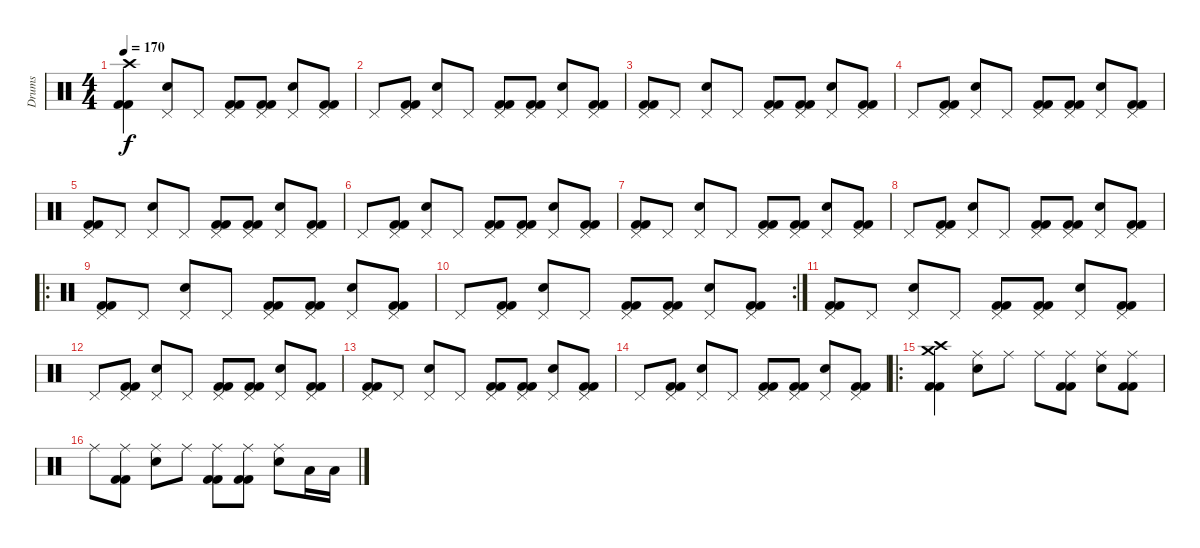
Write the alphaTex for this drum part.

\track ("Drums" "Drums") {instrument percussion}
\staff {score}
\articulation defaults
\ts (4 4)
\tempo 170
\clef neutral
\ks c
("Crash high (hit)" "Kick (hit) 2" "Kick (hit) 2").4{dy f} ("Pedal Hi-Hat (hit)" "Snare (hit) 2").8 "Pedal Hi-Hat (hit)".8 ("Pedal Hi-Hat (hit)" "Kick (hit) 2" "Kick (hit) 2").8 ("Pedal Hi-Hat (hit)" "Kick (hit) 2" "Kick (hit) 2").8 ("Pedal Hi-Hat (hit)" "Snare (hit) 2").8 ("Pedal Hi-Hat (hit)" "Kick (hit) 2" "Kick (hit) 2").8 |
"Pedal Hi-Hat (hit)".8 ("Pedal Hi-Hat (hit)" "Kick (hit) 2" "Kick (hit) 2").8 ("Pedal Hi-Hat (hit)" "Snare (hit) 2").8 "Pedal Hi-Hat (hit)".8 ("Pedal Hi-Hat (hit)" "Kick (hit) 2" "Kick (hit) 2").8 ("Pedal Hi-Hat (hit)" "Kick (hit) 2" "Kick (hit) 2").8 ("Pedal Hi-Hat (hit)" "Snare (hit) 2").8 ("Pedal Hi-Hat (hit)" "Kick (hit) 2" "Kick (hit) 2").8 |
("Pedal Hi-Hat (hit)" "Kick (hit) 2" "Kick (hit) 2").8 "Pedal Hi-Hat (hit)".8 ("Pedal Hi-Hat (hit)" "Snare (hit) 2").8 "Pedal Hi-Hat (hit)".8 ("Pedal Hi-Hat (hit)" "Kick (hit) 2" "Kick (hit) 2").8 ("Pedal Hi-Hat (hit)" "Kick (hit) 2" "Kick (hit) 2").8 ("Pedal Hi-Hat (hit)" "Snare (hit) 2").8 ("Pedal Hi-Hat (hit)" "Kick (hit) 2" "Kick (hit) 2").8 |
"Pedal Hi-Hat (hit)".8 ("Pedal Hi-Hat (hit)" "Kick (hit) 2" "Kick (hit) 2").8 ("Pedal Hi-Hat (hit)" "Snare (hit) 2").8 "Pedal Hi-Hat (hit)".8 ("Pedal Hi-Hat (hit)" "Kick (hit) 2" "Kick (hit) 2").8 ("Pedal Hi-Hat (hit)" "Kick (hit) 2" "Kick (hit) 2").8 ("Pedal Hi-Hat (hit)" "Snare (hit) 2").8 ("Pedal Hi-Hat (hit)" "Kick (hit) 2" "Kick (hit) 2").8 |
("Pedal Hi-Hat (hit)" "Kick (hit) 2" "Kick (hit) 2").8 "Pedal Hi-Hat (hit)".8 ("Pedal Hi-Hat (hit)" "Snare (hit) 2").8 "Pedal Hi-Hat (hit)".8 ("Pedal Hi-Hat (hit)" "Kick (hit) 2" "Kick (hit) 2").8 ("Pedal Hi-Hat (hit)" "Kick (hit) 2" "Kick (hit) 2").8 ("Pedal Hi-Hat (hit)" "Snare (hit) 2").8 ("Pedal Hi-Hat (hit)" "Kick (hit) 2" "Kick (hit) 2").8 |
"Pedal Hi-Hat (hit)".8 ("Pedal Hi-Hat (hit)" "Kick (hit) 2" "Kick (hit) 2").8 ("Pedal Hi-Hat (hit)" "Snare (hit) 2").8 "Pedal Hi-Hat (hit)".8 ("Pedal Hi-Hat (hit)" "Kick (hit) 2" "Kick (hit) 2").8 ("Pedal Hi-Hat (hit)" "Kick (hit) 2" "Kick (hit) 2").8 ("Pedal Hi-Hat (hit)" "Snare (hit) 2").8 ("Pedal Hi-Hat (hit)" "Kick (hit) 2" "Kick (hit) 2").8 |
("Pedal Hi-Hat (hit)" "Kick (hit) 2" "Kick (hit) 2").8 "Pedal Hi-Hat (hit)".8 ("Pedal Hi-Hat (hit)" "Snare (hit) 2").8 "Pedal Hi-Hat (hit)".8 ("Pedal Hi-Hat (hit)" "Kick (hit) 2" "Kick (hit) 2").8 ("Pedal Hi-Hat (hit)" "Kick (hit) 2" "Kick (hit) 2").8 ("Pedal Hi-Hat (hit)" "Snare (hit) 2").8 ("Pedal Hi-Hat (hit)" "Kick (hit) 2" "Kick (hit) 2").8 |
"Pedal Hi-Hat (hit)".8 ("Pedal Hi-Hat (hit)" "Kick (hit) 2" "Kick (hit) 2").8 ("Pedal Hi-Hat (hit)" "Snare (hit) 2").8 "Pedal Hi-Hat (hit)".8 ("Pedal Hi-Hat (hit)" "Kick (hit) 2" "Kick (hit) 2").8 ("Pedal Hi-Hat (hit)" "Kick (hit) 2" "Kick (hit) 2").8 ("Pedal Hi-Hat (hit)" "Snare (hit) 2").8 ("Pedal Hi-Hat (hit)" "Kick (hit) 2" "Kick (hit) 2").8 |
\ro
("Pedal Hi-Hat (hit)" "Kick (hit) 2" "Kick (hit) 2").8 "Pedal Hi-Hat (hit)".8 ("Pedal Hi-Hat (hit)" "Snare (hit) 2").8 "Pedal Hi-Hat (hit)".8 ("Pedal Hi-Hat (hit)" "Kick (hit) 2" "Kick (hit) 2").8 ("Pedal Hi-Hat (hit)" "Kick (hit) 2" "Kick (hit) 2").8 ("Pedal Hi-Hat (hit)" "Snare (hit) 2").8 ("Pedal Hi-Hat (hit)" "Kick (hit) 2" "Kick (hit) 2").8 |
\rc 2 "Pedal Hi-Hat (hit)".8
("Pedal Hi-Hat (hit)" "Kick (hit) 2" "Kick (hit) 2").8 ("Pedal Hi-Hat (hit)" "Snare (hit) 2").8 "Pedal Hi-Hat (hit)".8 ("Pedal Hi-Hat (hit)" "Kick (hit) 2" "Kick (hit) 2").8 ("Pedal Hi-Hat (hit)" "Kick (hit) 2" "Kick (hit) 2").8 ("Pedal Hi-Hat (hit)" "Snare (hit) 2").8 ("Pedal Hi-Hat (hit)" "Kick (hit) 2" "Kick (hit) 2").8 |
("Pedal Hi-Hat (hit)" "Kick (hit) 2" "Kick (hit) 2").8 "Pedal Hi-Hat (hit)".8 ("Pedal Hi-Hat (hit)" "Snare (hit) 2").8 "Pedal Hi-Hat (hit)".8 ("Pedal Hi-Hat (hit)" "Kick (hit) 2" "Kick (hit) 2").8 ("Pedal Hi-Hat (hit)" "Kick (hit) 2" "Kick (hit) 2").8 ("Pedal Hi-Hat (hit)" "Snare (hit) 2").8 ("Pedal Hi-Hat (hit)" "Kick (hit) 2" "Kick (hit) 2").8 |
"Pedal Hi-Hat (hit)".8 ("Pedal Hi-Hat (hit)" "Kick (hit) 2" "Kick (hit) 2").8 ("Pedal Hi-Hat (hit)" "Snare (hit) 2").8 "Pedal Hi-Hat (hit)".8 ("Pedal Hi-Hat (hit)" "Kick (hit) 2" "Kick (hit) 2").8 ("Pedal Hi-Hat (hit)" "Kick (hit) 2" "Kick (hit) 2").8 ("Pedal Hi-Hat (hit)" "Snare (hit) 2").8 ("Pedal Hi-Hat (hit)" "Kick (hit) 2" "Kick (hit) 2").8 |
("Pedal Hi-Hat (hit)" "Kick (hit) 2" "Kick (hit) 2").8 "Pedal Hi-Hat (hit)".8 ("Pedal Hi-Hat (hit)" "Snare (hit) 2").8 "Pedal Hi-Hat (hit)".8 ("Pedal Hi-Hat (hit)" "Kick (hit) 2" "Kick (hit) 2").8 ("Pedal Hi-Hat (hit)" "Kick (hit) 2" "Kick (hit) 2").8 ("Pedal Hi-Hat (hit)" "Snare (hit) 2").8 ("Pedal Hi-Hat (hit)" "Kick (hit) 2" "Kick (hit) 2").8 |
"Pedal Hi-Hat (hit)".8 ("Pedal Hi-Hat (hit)" "Kick (hit) 2" "Kick (hit) 2").8 ("Pedal Hi-Hat (hit)" "Snare (hit) 2").8 "Pedal Hi-Hat (hit)".8 ("Pedal Hi-Hat (hit)" "Kick (hit) 2" "Kick (hit) 2").8 ("Pedal Hi-Hat (hit)" "Kick (hit) 2" "Kick (hit) 2").8 ("Pedal Hi-Hat (hit)" "Snare (hit) 2").8 ("Pedal Hi-Hat (hit)" "Kick (hit) 2" "Kick (hit) 2").8 |
\ro
("Crash high (hit)" "Crash medium (hit)" "Kick (hit) 2" "Kick (hit) 2").4 ("Ride (middle)" "Snare (hit) 2").8 "Ride (middle)".8 "Ride (middle)".8 ("Ride (middle)" "Kick (hit) 2" "Kick (hit) 2").8 ("Ride (middle)" "Snare (hit) 2").8 ("Ride (middle)" "Kick (hit) 2" "Kick (hit) 2").8 |
"Ride (middle)".8 ("Ride (middle)" "Kick (hit) 2" "Kick (hit) 2").8 ("Ride (middle)" "Snare (hit) 2").8 "Ride (middle)".8 ("Ride (middle)" "Kick (hit) 2" "Kick (hit) 2").8 ("Ride (middle)" "Kick (hit) 2" "Kick (hit) 2").8 ("Ride (middle)" "Snare (hit) 2").8 "Low Tom (hit)".16 "Low Tom (hit)".16
